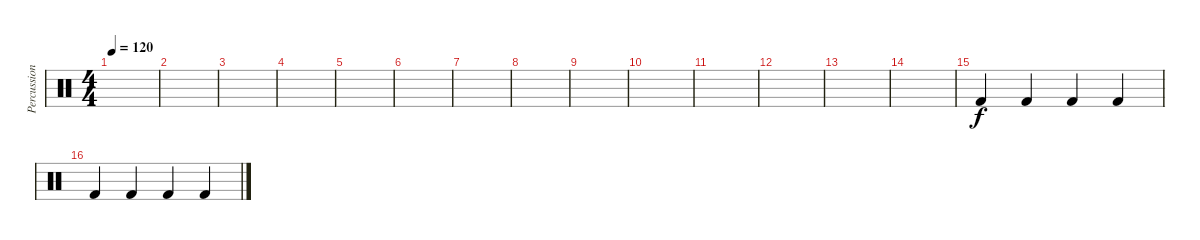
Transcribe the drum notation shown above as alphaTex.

\track ("Percussion" "Percussion") {instrument percussion}
\staff {score}
\articulation defaults
\ts (4 4)
\tempo 120
\clef neutral
\ks c
|
|
|
|
|
|
|
|
|
|
|
|
|
|
"Kick (hit) 2".4 "Kick (hit) 2".4 "Kick (hit) 2".4 "Kick (hit) 2".4 |
"Kick (hit) 2".4 "Kick (hit) 2".4 "Kick (hit) 2".4 "Kick (hit) 2".4
